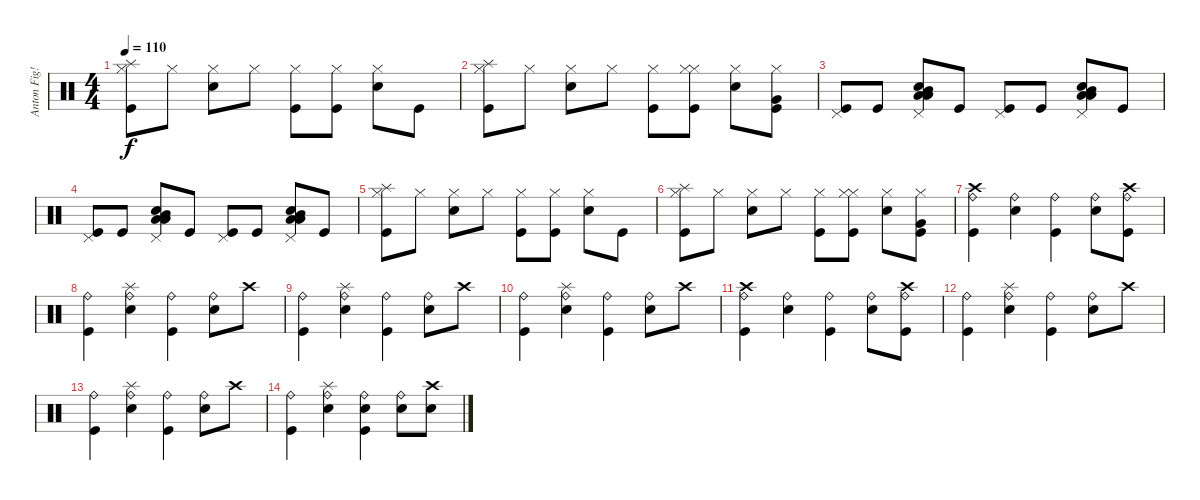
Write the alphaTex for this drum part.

\track ("Anton Fig!?!" "Anton Fig!") {instrument percussion}
\staff {score}
\articulation defaults
\ts (4 4)
\tempo 110
\clef neutral
\ks c
("Hi-Hat (closed)" "Splash (hit)" "Kick (hit)").8{dy f} "Hi-Hat (closed)".8 ("Hi-Hat (closed)" "Electric Snare (hit)").8 "Hi-Hat (closed)".8 ("Hi-Hat (closed)" "Kick (hit)").8 ("Hi-Hat (closed)" "Kick (hit)").8 ("Hi-Hat (closed)" "Electric Snare (hit)").8 "Kick (hit)".8 |
("Hi-Hat (closed)" "Splash (hit)" "Kick (hit)").8 "Hi-Hat (closed)".8 ("Hi-Hat (closed)" "Electric Snare (hit)").8 "Hi-Hat (closed)".8 ("Hi-Hat (closed)" "Kick (hit)").8 ("Hi-Hat (closed)" "Hi-Hat (closed)" "Kick (hit)").8 ("Hi-Hat (closed)" "Electric Snare (hit)").8 ("Hi-Hat (closed)" "Very Low Tom (hit)" "Kick (hit)").8 |
("Kick (hit)" "Pedal Hi-Hat (hit)").8 "Kick (hit)".8 ("Low Tom (hit)" "Mid Tom (hit)" "Low Floor Tom (hit)" "Electric Snare (hit)" "Pedal Hi-Hat (hit)").8 "Kick (hit)".8 ("Kick (hit)" "Pedal Hi-Hat (hit)").8 "Kick (hit)".8 ("Low Tom (hit)" "Mid Tom (hit)" "Low Floor Tom (hit)" "Electric Snare (hit)" "Pedal Hi-Hat (hit)").8 "Kick (hit)".8 |
("Kick (hit)" "Pedal Hi-Hat (hit)").8 "Kick (hit)".8 ("Low Tom (hit)" "Mid Tom (hit)" "Low Floor Tom (hit)" "Electric Snare (hit)" "Pedal Hi-Hat (hit)").8 "Kick (hit)".8 ("Kick (hit)" "Pedal Hi-Hat (hit)").8 "Kick (hit)".8 ("Low Tom (hit)" "Mid Tom (hit)" "Low Floor Tom (hit)" "Electric Snare (hit)" "Pedal Hi-Hat (hit)").8 "Kick (hit)".8 |
("Hi-Hat (closed)" "Splash (hit)" "Kick (hit)").8 "Hi-Hat (closed)".8 ("Hi-Hat (closed)" "Electric Snare (hit)").8 "Hi-Hat (closed)".8 ("Hi-Hat (closed)" "Kick (hit)").8 ("Hi-Hat (closed)" "Kick (hit)").8 ("Hi-Hat (closed)" "Electric Snare (hit)").8 "Kick (hit)".8 |
("Hi-Hat (closed)" "Splash (hit)" "Kick (hit)").8 "Hi-Hat (closed)".8 ("Hi-Hat (closed)" "Electric Snare (hit)").8 "Hi-Hat (closed)".8 ("Hi-Hat (closed)" "Kick (hit)").8 ("Hi-Hat (closed)" "Hi-Hat (closed)" "Kick (hit)").8 ("Hi-Hat (closed)" "Electric Snare (hit)").8 ("Hi-Hat (closed)" "Very Low Tom (hit)" "Kick (hit)").8 |
("Ride (bell)" "Crash high (hit)" "Kick (hit)").4 ("Ride (bell)" "Electric Snare (hit)").4 ("Ride (bell)" "Kick (hit)").4 ("Ride (bell)" "Electric Snare (hit)").8 ("Ride (bell)" "Crash high (hit)" "Kick (hit)").8 |
("Ride (bell)" "Kick (hit)").4 ("Ride (bell)" "Splash (hit)" "Electric Snare (hit)").4 ("Ride (bell)" "Kick (hit)").4 ("Ride (bell)" "Electric Snare (hit)").8 "Crash high (hit)".8 |
("Ride (bell)" "Kick (hit)").4 ("Ride (bell)" "Splash (hit)" "Electric Snare (hit)").4 ("Ride (bell)" "Kick (hit)").4 ("Ride (bell)" "Electric Snare (hit)").8 "Crash high (hit)".8 |
("Ride (bell)" "Kick (hit)").4 ("Ride (bell)" "Splash (hit)" "Electric Snare (hit)").4 ("Ride (bell)" "Kick (hit)").4 ("Ride (bell)" "Electric Snare (hit)").8 "Crash high (hit)".8 |
("Ride (bell)" "Crash high (hit)" "Kick (hit)").4 ("Ride (bell)" "Electric Snare (hit)").4 ("Ride (bell)" "Kick (hit)").4 ("Ride (bell)" "Electric Snare (hit)").8 ("Ride (bell)" "Crash high (hit)" "Kick (hit)").8 |
("Ride (bell)" "Kick (hit)").4 ("Ride (bell)" "Splash (hit)" "Electric Snare (hit)").4 ("Ride (bell)" "Kick (hit)").4 ("Ride (bell)" "Electric Snare (hit)").8 "Crash high (hit)".8 |
("Ride (bell)" "Kick (hit)").4 ("Ride (bell)" "Splash (hit)" "Electric Snare (hit)").4 ("Ride (bell)" "Kick (hit)").4 ("Ride (bell)" "Electric Snare (hit)").8 "Crash high (hit)".8 |
("Ride (bell)" "Kick (hit)").4 ("Ride (bell)" "Splash (hit)" "Electric Snare (hit)").4 ("Ride (bell)" "Electric Snare (hit)" "Kick (hit)").4 ("Ride (bell)" "Electric Snare (hit)").8 ("Crash high (hit)" "Electric Snare (hit)").8
